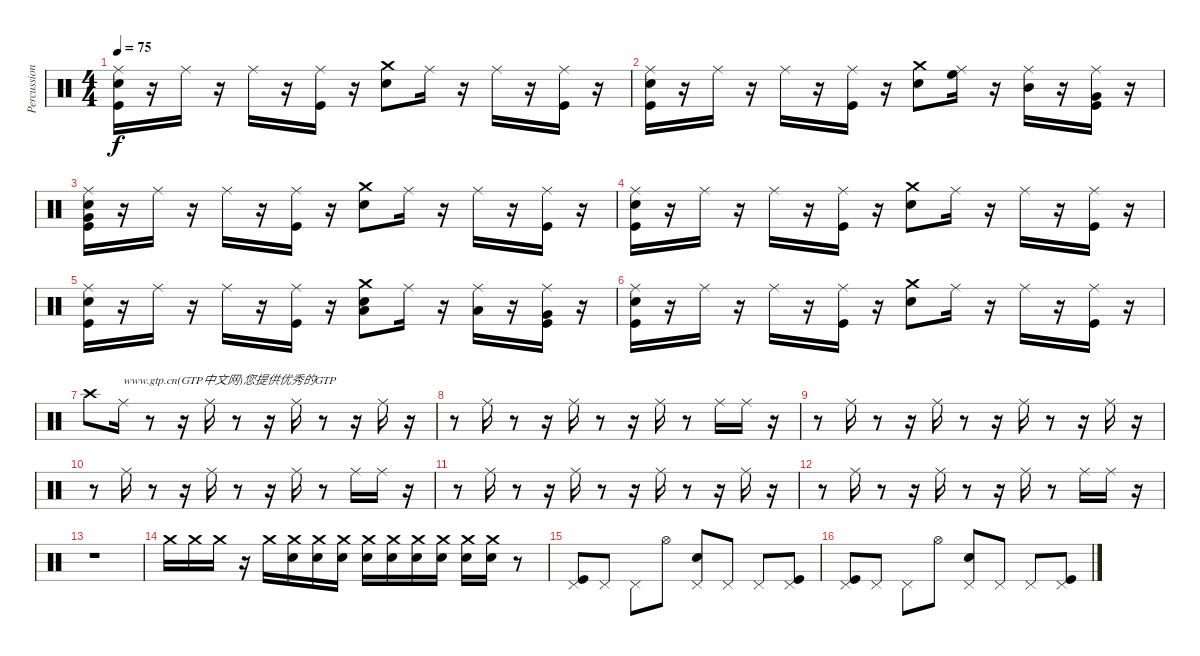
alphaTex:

\track ("Percussion" "Percussion") {instrument percussion}
\staff {score}
\articulation defaults
\ts (4 4)
\tempo 75
\clef neutral
\ks c
("Snare (hit) 2" "Ride (middle)" "Kick (hit)").16{dy f} r.16 "Ride (middle)".16 r.16 "Ride (middle)".16 r.16 ("Kick (hit)" "Ride (middle)").16 r.16 ("Snare (hit) 2" "Crash medium (hit)").8 "Ride (middle)".16 r.16 "Ride (middle)".16 r.16 ("Kick (hit)" "Ride (middle)").16 r.16 |
("Snare (hit) 2" "Ride (middle)" "Kick (hit)").16 r.16 "Ride (middle)".16 r.16 "Ride (middle)".16 r.16 ("Kick (hit)" "Ride (middle)").16 r.16 ("Snare (hit) 2" "Crash medium (hit)").8 ("High Floor Tom (hit)" "Ride (middle)").16 r.16 ("Mid Tom (hit)" "Ride (middle)").16 r.16 ("Very Low Tom (hit)" "Kick (hit)" "Ride (middle)").16 r.16 |
("Very Low Tom (hit)" "Snare (hit) 2" "Ride (middle)" "Kick (hit)").16 r.16 "Ride (middle)".16 r.16 "Ride (middle)".16 r.16 ("Kick (hit)" "Ride (middle)").16 r.16 ("Snare (hit) 2" "Crash medium (hit)").8 "Ride (middle)".16 r.16 "Ride (middle)".16 r.16 ("Kick (hit)" "Ride (middle)").16 r.16 |
("Snare (hit) 2" "Ride (middle)" "Kick (hit)").16 r.16 "Ride (middle)".16 r.16 "Ride (middle)".16 r.16 ("Kick (hit)" "Ride (middle)").16 r.16 ("Snare (hit) 2" "Crash medium (hit)").8 "Ride (middle)".16 r.16 "Ride (middle)".16 r.16 ("Kick (hit)" "Ride (middle)").16 r.16 |
("Snare (hit) 2" "Ride (middle)" "Kick (hit)").16 r.16 "Ride (middle)".16 r.16 "Ride (middle)".16 r.16 ("Kick (hit)" "Ride (middle)").16 r.16 ("Low Tom (hit)" "Snare (hit) 2" "Crash medium (hit)").8 "Ride (middle)".16 r.16 ("Low Tom (hit)" "Ride (middle)").16 r.16 ("Very Low Tom (hit)" "Kick (hit)" "Ride (middle)").16 r.16 |
("Snare (hit) 2" "Ride (middle)" "Kick (hit)").16 r.16 "Ride (middle)".16 r.16 "Ride (middle)".16 r.16 ("Kick (hit)" "Ride (middle)").16 r.16 ("Snare (hit) 2" "Crash medium (hit)").8 "Ride (middle)".16 r.16 "Ride (middle)".16 r.16 ("Kick (hit)" "Ride (middle)").16 r.16 |
"Crash high (hit)".8 "Ride (middle)".16{txt "www.gtp.cn(GTP中文网)您提供优秀的GTP"} r.8 r.16 "Ride (middle)".16 r.8 r.16 "Ride (middle)".16 r.8 r.16 "Ride (middle)".16 r.16 |
r.8 "Ride (middle)".16 r.8 r.16 "Ride (middle)".16 r.8 r.16 "Ride (middle)".16 r.8 "Ride (middle)".16 "Ride (middle)".16 r.16 |
r.8 "Ride (middle)".16 r.8 r.16 "Ride (middle)".16 r.8 r.16 "Ride (middle)".16 r.8 r.16 "Ride (middle)".16 r.16 |
r.8 "Ride (middle)".16 r.8 r.16 "Ride (middle)".16 r.8 r.16 "Ride (middle)".16 r.8 "Ride (middle)".16 "Ride (middle)".16 r.16 |
r.8 "Ride (middle)".16 r.8 r.16 "Ride (middle)".16 r.8 r.16 "Ride (middle)".16 r.8 r.16 "Ride (middle)".16 r.16 |
r.8 "Ride (middle)".16 r.8 r.16 "Ride (middle)".16 r.8 r.16 "Ride (middle)".16 r.8 "Ride (middle)".16 "Ride (middle)".16 r.16 |
r.1 |
"Crash medium (hit)".16 "Crash medium (hit)".16 "Crash medium (hit)".16 r.16 "Crash medium (hit)".16 ("Snare (hit)" "Crash medium (hit)").16 ("Snare (hit)" "Crash medium (hit)").16 ("Snare (hit)" "Crash medium (hit)").16 ("Snare (hit)" "Crash medium (hit)").16 ("Snare (hit)" "Crash medium (hit)").16 ("Snare (hit)" "Crash medium (hit)").16 ("Snare (hit)" "Crash medium (hit)").16 ("Snare (hit)" "Crash medium (hit)").16 ("Snare (hit)" "Crash medium (hit)").16 r.8 |
("Pedal Hi-Hat (hit)" "Kick (hit)").8 "Pedal Hi-Hat (hit)".8 "Pedal Hi-Hat (hit)".8 "Hi-Hat (open)".8 ("Snare (hit) 2" "Pedal Hi-Hat (hit)").8 "Pedal Hi-Hat (hit)".8 "Pedal Hi-Hat (hit)".8 ("Kick (hit)" "Pedal Hi-Hat (hit)").8 |
("Pedal Hi-Hat (hit)" "Kick (hit)").8 "Pedal Hi-Hat (hit)".8 "Pedal Hi-Hat (hit)".8 "Hi-Hat (open)".8 ("Snare (hit) 2" "Pedal Hi-Hat (hit)").8 "Pedal Hi-Hat (hit)".8 "Pedal Hi-Hat (hit)".8 ("Kick (hit)" "Pedal Hi-Hat (hit)").8
